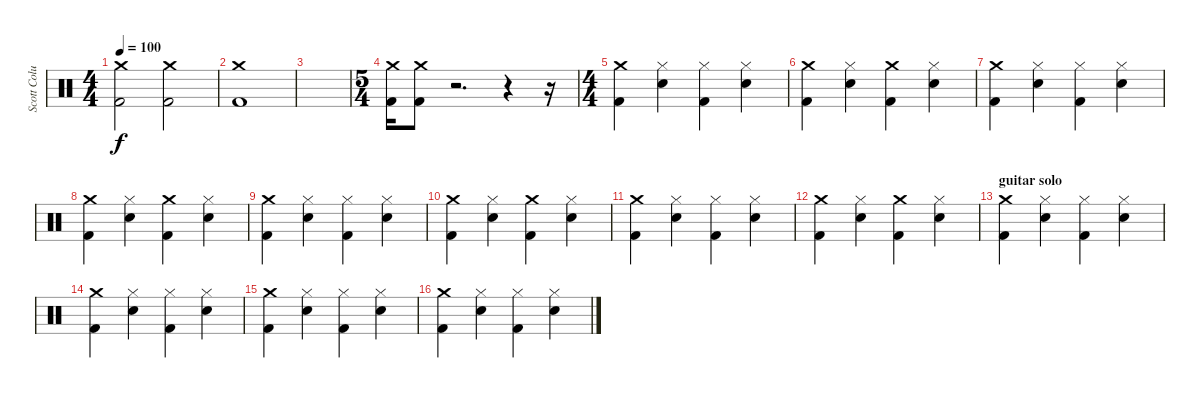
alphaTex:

\track ("Scott Columbus" "Scott Colu") {instrument percussion}
\staff {score}
\articulation defaults
\ts (4 4)
\tempo 100
\clef neutral
\ks c
("Crash medium (hit)" "Kick (hit) 2").2{dy f} ("Crash medium (hit)" "Kick (hit) 2").2 |
("Crash medium (hit)" "Kick (hit) 2").1 |
|
\ts (5 4)
("Crash medium (hit)" "Kick (hit) 2").16 ("Crash medium (hit)" "Kick (hit) 2").8 r.2{d} r.4 r.16 |
\ts (4 4)
("Crash medium (hit)" "Kick (hit) 2").4 ("Hi-Hat (closed)" "Snare (hit) 2").4 ("Hi-Hat (closed)" "Kick (hit) 2").4 ("Hi-Hat (closed)" "Snare (hit) 2").4 |
("Crash medium (hit)" "Kick (hit) 2").4 ("Hi-Hat (closed)" "Snare (hit) 2").4 ("Crash medium (hit)" "Kick (hit) 2").4 ("Hi-Hat (closed)" "Snare (hit) 2").4 |
("Crash medium (hit)" "Kick (hit) 2").4 ("Hi-Hat (closed)" "Snare (hit) 2").4 ("Hi-Hat (closed)" "Kick (hit) 2").4 ("Hi-Hat (closed)" "Snare (hit) 2").4 |
("Crash medium (hit)" "Kick (hit) 2").4 ("Hi-Hat (closed)" "Snare (hit) 2").4 ("Crash medium (hit)" "Kick (hit) 2").4 ("Hi-Hat (closed)" "Snare (hit) 2").4 |
("Crash medium (hit)" "Kick (hit) 2").4 ("Hi-Hat (closed)" "Snare (hit) 2").4 ("Hi-Hat (closed)" "Kick (hit) 2").4 ("Hi-Hat (closed)" "Snare (hit) 2").4 |
("Crash medium (hit)" "Kick (hit) 2").4 ("Hi-Hat (closed)" "Snare (hit) 2").4 ("Crash medium (hit)" "Kick (hit) 2").4 ("Hi-Hat (closed)" "Snare (hit) 2").4 |
("Crash medium (hit)" "Kick (hit) 2").4 ("Hi-Hat (closed)" "Snare (hit) 2").4 ("Hi-Hat (closed)" "Kick (hit) 2").4 ("Hi-Hat (closed)" "Snare (hit) 2").4 |
("Crash medium (hit)" "Kick (hit) 2").4 ("Hi-Hat (closed)" "Snare (hit) 2").4 ("Crash medium (hit)" "Kick (hit) 2").4 ("Hi-Hat (closed)" "Snare (hit) 2").4 |
\section ("" "guitar solo")
("Crash medium (hit)" "Kick (hit) 2").4 ("Hi-Hat (closed)" "Snare (hit) 2").4 ("Hi-Hat (closed)" "Kick (hit) 2").4 ("Hi-Hat (closed)" "Snare (hit) 2").4 |
("Crash medium (hit)" "Kick (hit) 2").4 ("Hi-Hat (closed)" "Snare (hit) 2").4 ("Hi-Hat (closed)" "Kick (hit) 2").4 ("Hi-Hat (closed)" "Snare (hit) 2").4 |
("Crash medium (hit)" "Kick (hit) 2").4 ("Hi-Hat (closed)" "Snare (hit) 2").4 ("Hi-Hat (closed)" "Kick (hit) 2").4 ("Hi-Hat (closed)" "Snare (hit) 2").4 |
("Crash medium (hit)" "Kick (hit) 2").4 ("Hi-Hat (closed)" "Snare (hit) 2").4 ("Hi-Hat (closed)" "Kick (hit) 2").4 ("Hi-Hat (closed)" "Snare (hit) 2").4
